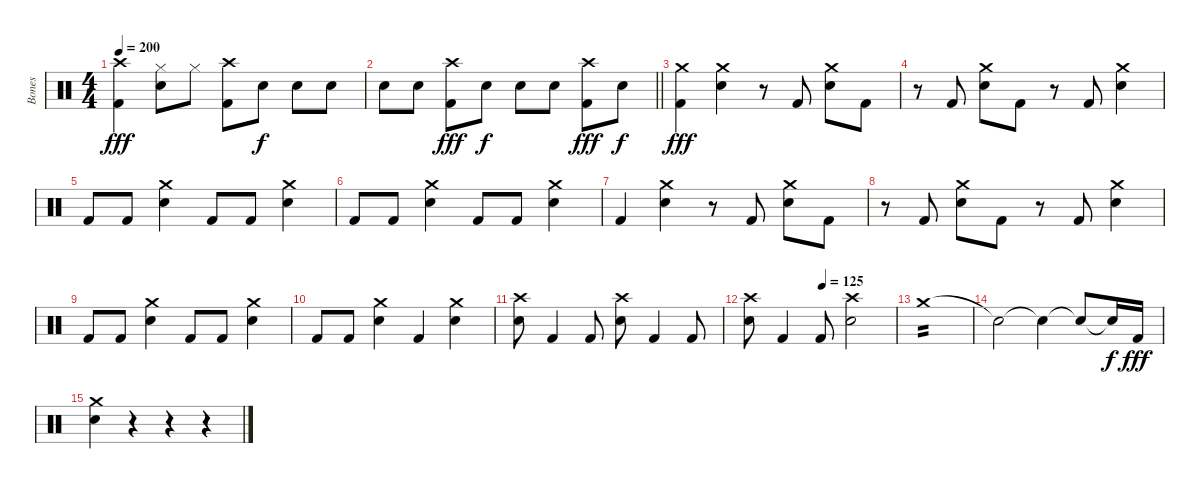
\track ("Bones " "Bones ") {instrument percussion}
\staff {score}
\articulation defaults
\ts (4 4)
\tempo 200
\clef neutral
\ks c
("Crash high (hit)" "Kick (hit) 2").4{dy fff} ("Hi-Hat (closed)" "Snare (hit) 2").8 "Hi-Hat (closed)".8 ("Crash high (hit)" "Kick (hit) 2").8 "Snare (hit) 2".8{dy f} "Snare (hit) 2".8 "Snare (hit) 2".8 |
\barLineRight lightlight "Snare (hit) 2".8 "Snare (hit) 2".8
("Crash high (hit)" "Kick (hit) 2").8{dy fff} "Snare (hit) 2".8{dy f} "Snare (hit) 2".8 "Snare (hit) 2".8 ("Crash high (hit)" "Kick (hit) 2").8{dy fff} "Snare (hit) 2".8{dy f} |
("Crash medium (hit)" "Kick (hit) 2").4{dy fff} ("Crash medium (hit)" "Snare (hit) 2").4 r.8 "Kick (hit) 2".8 ("Crash medium (hit)" "Snare (hit) 2").8 "Kick (hit) 2".8 |
r.8 "Kick (hit) 2".8 ("Crash medium (hit)" "Snare (hit) 2").8 "Kick (hit) 2".8 r.8 "Kick (hit) 2".8 ("Crash medium (hit)" "Snare (hit) 2").4 |
"Kick (hit) 2".8 "Kick (hit) 2".8 ("Crash medium (hit)" "Snare (hit) 2").4 "Kick (hit) 2".8 "Kick (hit) 2".8 ("Crash medium (hit)" "Snare (hit) 2").4 |
"Kick (hit) 2".8 "Kick (hit) 2".8 ("Crash medium (hit)" "Snare (hit) 2").4 "Kick (hit) 2".8 "Kick (hit) 2".8 ("Crash medium (hit)" "Snare (hit) 2").4 |
"Kick (hit) 2".4 ("Crash medium (hit)" "Snare (hit) 2").4 r.8 "Kick (hit) 2".8 ("Crash medium (hit)" "Snare (hit) 2").8 "Kick (hit) 2".8 |
r.8 "Kick (hit) 2".8 ("Crash medium (hit)" "Snare (hit) 2").8 "Kick (hit) 2".8 r.8 "Kick (hit) 2".8 ("Crash medium (hit)" "Snare (hit) 2").4 |
"Kick (hit) 2".8 "Kick (hit) 2".8 ("Crash medium (hit)" "Snare (hit) 2").4 "Kick (hit) 2".8 "Kick (hit) 2".8 ("Crash medium (hit)" "Snare (hit) 2").4 |
"Kick (hit) 2".8 "Kick (hit) 2".8 ("Crash medium (hit)" "Snare (hit) 2").4 "Kick (hit) 2".4 ("Crash medium (hit)" "Snare (hit) 2").4 |
("Crash high (hit)" "Snare (hit) 2").8 "Kick (hit) 2".4 "Kick (hit) 2".8 ("Crash high (hit)" "Snare (hit) 2").8 "Kick (hit) 2".4 "Kick (hit) 2".8 |
\tempo (125 0.5)
("Crash high (hit)" "Snare (hit) 2").8 "Kick (hit) 2".4 "Kick (hit) 2".8 ("Crash high (hit)" "Snare (hit) 2").2 |
"Crash medium (hit)".1{tp 2} |
"Snare (hit)"{t}.2 "Snare (hit)"{t}.4 "Snare (hit)"{t}.8 "Snare (hit)"{t}.16{dy f} "Kick (hit) 2".16{dy fff} |
("Crash medium (hit)" "Snare (hit) 2").4 r.4 r.4 r.4
